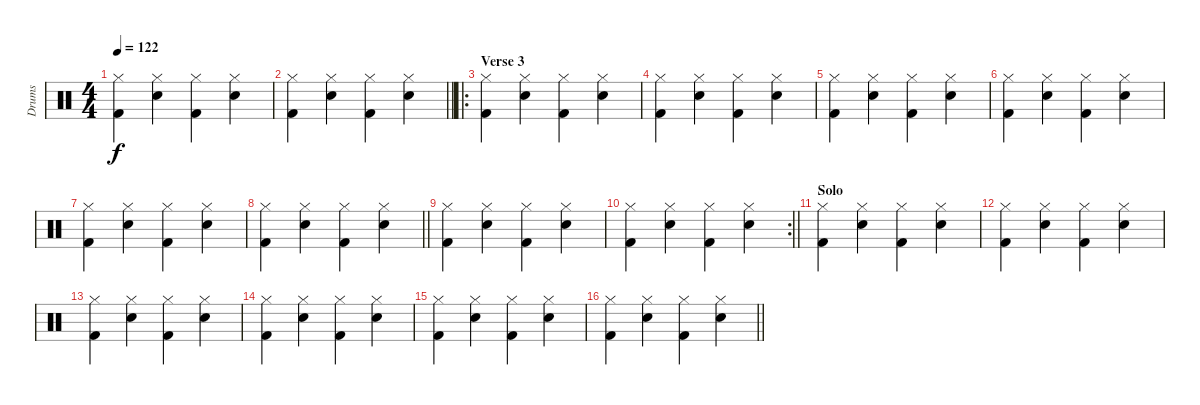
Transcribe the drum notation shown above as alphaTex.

\track ("Drums" "Drums") {instrument percussion}
\staff {score}
\articulation defaults
\ts (4 4)
\tempo 122
\clef neutral
\ks c
("Hi-Hat (closed)" "Kick (hit) 2").4{dy f} ("Hi-Hat (closed)" "Snare (hit) 2").4 ("Hi-Hat (closed)" "Kick (hit) 2").4 ("Hi-Hat (closed)" "Snare (hit) 2").4 |
\barLineRight lightlight
("Hi-Hat (closed)" "Kick (hit) 2").4 ("Hi-Hat (closed)" "Snare (hit) 2").4 ("Hi-Hat (closed)" "Kick (hit) 2").4 ("Hi-Hat (closed)" "Snare (hit) 2").4 |
\ro
\section ("" "Verse 3")
("Hi-Hat (closed)" "Kick (hit) 2").4 ("Hi-Hat (closed)" "Snare (hit) 2").4 ("Hi-Hat (closed)" "Kick (hit) 2").4 ("Hi-Hat (closed)" "Snare (hit) 2").4 |
("Hi-Hat (closed)" "Kick (hit) 2").4 ("Hi-Hat (closed)" "Snare (hit) 2").4 ("Hi-Hat (closed)" "Kick (hit) 2").4 ("Hi-Hat (closed)" "Snare (hit) 2").4 |
("Hi-Hat (closed)" "Kick (hit) 2").4 ("Hi-Hat (closed)" "Snare (hit) 2").4 ("Hi-Hat (closed)" "Kick (hit) 2").4 ("Hi-Hat (closed)" "Snare (hit) 2").4 |
("Hi-Hat (closed)" "Kick (hit) 2").4 ("Hi-Hat (closed)" "Snare (hit) 2").4 ("Hi-Hat (closed)" "Kick (hit) 2").4 ("Hi-Hat (closed)" "Snare (hit) 2").4 |
("Hi-Hat (closed)" "Kick (hit) 2").4 ("Hi-Hat (closed)" "Snare (hit) 2").4 ("Hi-Hat (closed)" "Kick (hit) 2").4 ("Hi-Hat (closed)" "Snare (hit) 2").4 |
\barLineRight lightlight
("Hi-Hat (closed)" "Kick (hit) 2").4 ("Hi-Hat (closed)" "Snare (hit) 2").4 ("Hi-Hat (closed)" "Kick (hit) 2").4 ("Hi-Hat (closed)" "Snare (hit) 2").4 |
("Hi-Hat (closed)" "Kick (hit) 2").4 ("Hi-Hat (closed)" "Snare (hit) 2").4 ("Hi-Hat (closed)" "Kick (hit) 2").4 ("Hi-Hat (closed)" "Snare (hit) 2").4 |
\rc 2
\barLineRight lightlight
("Hi-Hat (closed)" "Kick (hit) 2").4 ("Hi-Hat (closed)" "Snare (hit) 2").4 ("Hi-Hat (closed)" "Kick (hit) 2").4 ("Hi-Hat (closed)" "Snare (hit) 2").4 |
\section ("" "Solo")
("Hi-Hat (closed)" "Kick (hit) 2").4 ("Hi-Hat (closed)" "Snare (hit) 2").4 ("Hi-Hat (closed)" "Kick (hit) 2").4 ("Hi-Hat (closed)" "Snare (hit) 2").4 |
("Hi-Hat (closed)" "Kick (hit) 2").4 ("Hi-Hat (closed)" "Snare (hit) 2").4 ("Hi-Hat (closed)" "Kick (hit) 2").4 ("Hi-Hat (closed)" "Snare (hit) 2").4 |
("Hi-Hat (closed)" "Kick (hit) 2").4 ("Hi-Hat (closed)" "Snare (hit) 2").4 ("Hi-Hat (closed)" "Kick (hit) 2").4 ("Hi-Hat (closed)" "Snare (hit) 2").4 |
("Hi-Hat (closed)" "Kick (hit) 2").4 ("Hi-Hat (closed)" "Snare (hit) 2").4 ("Hi-Hat (closed)" "Kick (hit) 2").4 ("Hi-Hat (closed)" "Snare (hit) 2").4 |
("Hi-Hat (closed)" "Kick (hit) 2").4 ("Hi-Hat (closed)" "Snare (hit) 2").4 ("Hi-Hat (closed)" "Kick (hit) 2").4 ("Hi-Hat (closed)" "Snare (hit) 2").4 |
\barLineRight lightlight
("Hi-Hat (closed)" "Kick (hit) 2").4 ("Hi-Hat (closed)" "Snare (hit) 2").4 ("Hi-Hat (closed)" "Kick (hit) 2").4 ("Hi-Hat (closed)" "Snare (hit) 2").4
